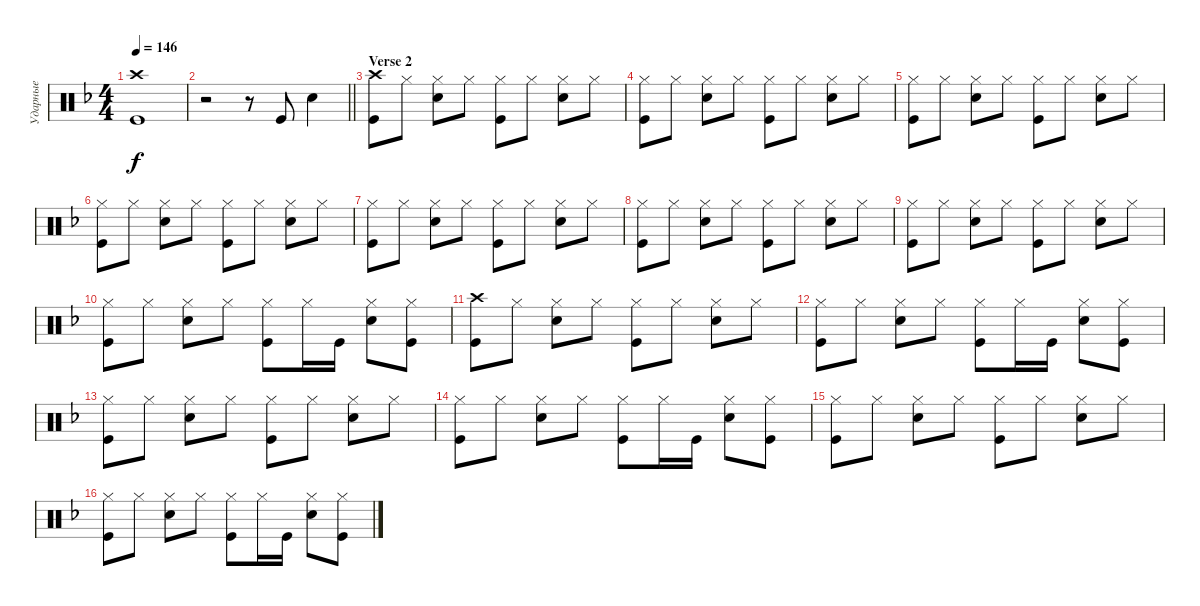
\track ("Ударные" "Ударные") {instrument percussion}
\staff {score}
\articulation defaults
\ts (4 4)
\tempo 146
\clef neutral
\ks dminor
("Kick (hit)" "Crash high (hit)").1{dy f} |
\barLineRight lightlight
r.2 r.8 "Kick (hit)".8 "Snare (hit) 2".4 |
\section ("" "Verse 2")
("Kick (hit)" "Crash high (hit)").8 "Hi-Hat (closed)".8 ("Hi-Hat (closed)" "Snare (hit) 2").8 "Hi-Hat (closed)".8 ("Hi-Hat (closed)" "Kick (hit)").8 "Hi-Hat (closed)".8 ("Hi-Hat (closed)" "Snare (hit) 2").8 "Hi-Hat (closed)".8 |
("Kick (hit)" "Hi-Hat (closed)").8 "Hi-Hat (closed)".8 ("Hi-Hat (closed)" "Snare (hit) 2").8 "Hi-Hat (closed)".8 ("Hi-Hat (closed)" "Kick (hit)").8 "Hi-Hat (closed)".8 ("Hi-Hat (closed)" "Snare (hit) 2").8 "Hi-Hat (closed)".8 |
("Kick (hit)" "Hi-Hat (closed)").8 "Hi-Hat (closed)".8 ("Hi-Hat (closed)" "Snare (hit) 2").8 "Hi-Hat (closed)".8 ("Hi-Hat (closed)" "Kick (hit)").8 "Hi-Hat (closed)".8 ("Hi-Hat (closed)" "Snare (hit) 2").8 "Hi-Hat (closed)".8 |
("Kick (hit)" "Hi-Hat (closed)").8 "Hi-Hat (closed)".8 ("Hi-Hat (closed)" "Snare (hit) 2").8 "Hi-Hat (closed)".8 ("Hi-Hat (closed)" "Kick (hit)").8 "Hi-Hat (closed)".8 ("Hi-Hat (closed)" "Snare (hit) 2").8 "Hi-Hat (closed)".8 |
("Kick (hit)" "Hi-Hat (closed)").8 "Hi-Hat (closed)".8 ("Hi-Hat (closed)" "Snare (hit) 2").8 "Hi-Hat (closed)".8 ("Hi-Hat (closed)" "Kick (hit)").8 "Hi-Hat (closed)".8 ("Hi-Hat (closed)" "Snare (hit) 2").8 "Hi-Hat (closed)".8 |
("Kick (hit)" "Hi-Hat (closed)").8 "Hi-Hat (closed)".8 ("Hi-Hat (closed)" "Snare (hit) 2").8 "Hi-Hat (closed)".8 ("Hi-Hat (closed)" "Kick (hit)").8 "Hi-Hat (closed)".8 ("Hi-Hat (closed)" "Snare (hit) 2").8 "Hi-Hat (closed)".8 |
("Kick (hit)" "Hi-Hat (closed)").8 "Hi-Hat (closed)".8 ("Hi-Hat (closed)" "Snare (hit) 2").8 "Hi-Hat (closed)".8 ("Hi-Hat (closed)" "Kick (hit)").8 "Hi-Hat (closed)".8 ("Hi-Hat (closed)" "Snare (hit) 2").8 "Hi-Hat (closed)".8 |
("Kick (hit)" "Hi-Hat (closed)").8 "Hi-Hat (closed)".8 ("Hi-Hat (closed)" "Snare (hit) 2").8 "Hi-Hat (closed)".8 ("Hi-Hat (closed)" "Kick (hit)").8 "Hi-Hat (closed)".16 "Kick (hit)".16 ("Hi-Hat (closed)" "Snare (hit) 2").8 ("Hi-Hat (closed)" "Kick (hit)").8 |
("Kick (hit)" "Crash high (hit)").8 "Hi-Hat (closed)".8 ("Hi-Hat (closed)" "Snare (hit) 2").8 "Hi-Hat (closed)".8 ("Hi-Hat (closed)" "Kick (hit)").8 "Hi-Hat (closed)".8 ("Hi-Hat (closed)" "Snare (hit) 2").8 "Hi-Hat (closed)".8 |
("Kick (hit)" "Hi-Hat (closed)").8 "Hi-Hat (closed)".8 ("Hi-Hat (closed)" "Snare (hit) 2").8 "Hi-Hat (closed)".8 ("Hi-Hat (closed)" "Kick (hit)").8 "Hi-Hat (closed)".16 "Kick (hit)".16 ("Hi-Hat (closed)" "Snare (hit) 2").8 ("Hi-Hat (closed)" "Kick (hit)").8 |
("Kick (hit)" "Hi-Hat (closed)").8 "Hi-Hat (closed)".8 ("Hi-Hat (closed)" "Snare (hit) 2").8 "Hi-Hat (closed)".8 ("Hi-Hat (closed)" "Kick (hit)").8 "Hi-Hat (closed)".8 ("Hi-Hat (closed)" "Snare (hit) 2").8 "Hi-Hat (closed)".8 |
("Kick (hit)" "Hi-Hat (closed)").8 "Hi-Hat (closed)".8 ("Hi-Hat (closed)" "Snare (hit) 2").8 "Hi-Hat (closed)".8 ("Hi-Hat (closed)" "Kick (hit)").8 "Hi-Hat (closed)".16 "Kick (hit)".16 ("Hi-Hat (closed)" "Snare (hit) 2").8 ("Hi-Hat (closed)" "Kick (hit)").8 |
("Kick (hit)" "Hi-Hat (closed)").8 "Hi-Hat (closed)".8 ("Hi-Hat (closed)" "Snare (hit) 2").8 "Hi-Hat (closed)".8 ("Hi-Hat (closed)" "Kick (hit)").8 "Hi-Hat (closed)".8 ("Hi-Hat (closed)" "Snare (hit) 2").8 "Hi-Hat (closed)".8 |
("Kick (hit)" "Hi-Hat (closed)").8 "Hi-Hat (closed)".8 ("Hi-Hat (closed)" "Snare (hit) 2").8 "Hi-Hat (closed)".8 ("Hi-Hat (closed)" "Kick (hit)").8 "Hi-Hat (closed)".16 "Kick (hit)".16 ("Hi-Hat (closed)" "Snare (hit) 2").8 ("Hi-Hat (closed)" "Kick (hit)").8
